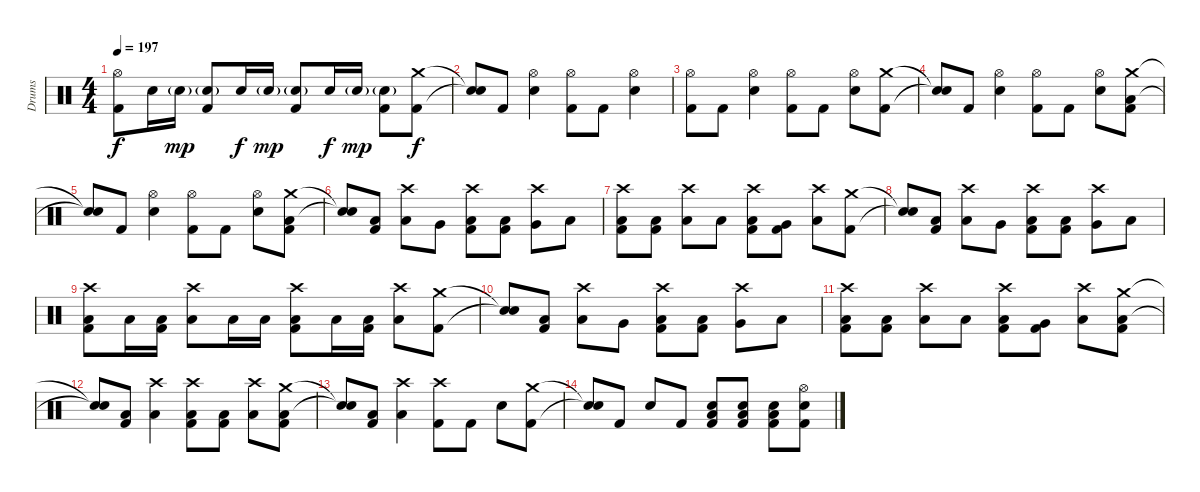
\track ("Drums" "Drums") {instrument percussion}
\staff {score}
\articulation defaults
\ts (4 4)
\tempo 197
\clef neutral
\ks c
("Hi-Hat (open)" "Kick (hit) 2").8{dy f} "Electric Snare (hit)".16 "Electric Snare (hit)"{g}.16{dy mp} ("Electric Snare (hit)"{g} "Kick (hit) 2").8 "Electric Snare (hit)".16{dy f} "Electric Snare (hit)"{g}.16{dy mp} ("Electric Snare (hit)"{g} "Kick (hit) 2").8 "Electric Snare (hit)".16{dy f} "Electric Snare (hit)"{g}.16{dy mp} ("Electric Snare (hit)"{g} "Kick (hit) 2").8 ("Crash medium (hit)" "Kick (hit) 2").8{dy f} |
("Snare (hit)"{t} "Snare (hit)"{t}).8 "Kick (hit) 2".8 ("Hi-Hat (open)" "Electric Snare (hit)").4 ("Hi-Hat (open)" "Kick (hit) 2").8 "Kick (hit) 2".8 ("Hi-Hat (open)" "Electric Snare (hit)").4 |
("Hi-Hat (open)" "Kick (hit) 2").8 "Kick (hit) 2".8 ("Hi-Hat (open)" "Electric Snare (hit)").4 ("Hi-Hat (open)" "Kick (hit) 2").8 "Kick (hit) 2".8 ("Hi-Hat (open)" "Electric Snare (hit)").8 ("Crash medium (hit)" "Kick (hit) 2").8 |
("Snare (hit)"{t} "Snare (hit)"{t}).8 "Kick (hit) 2".8 ("Hi-Hat (open)" "Electric Snare (hit)").4 ("Hi-Hat (open)" "Kick (hit) 2").8 "Kick (hit) 2".8 ("Hi-Hat (open)" "Electric Snare (hit)").8 ("Crash medium (hit)" "Low Tom (hit)" "Kick (hit) 2").8 |
\section ("" "")
("Snare (hit)"{t} "Snare (hit)"{t}).8 "Kick (hit) 2".8 ("Hi-Hat (open)" "Electric Snare (hit)").4 ("Hi-Hat (open)" "Kick (hit) 2").8 "Kick (hit) 2".8 ("Hi-Hat (open)" "Electric Snare (hit)").8 ("Crash medium (hit)" "Low Tom (hit)" "Kick (hit) 2").8 |
("Snare (hit)"{t} "Snare (hit)"{t}).8 ("Low Floor Tom (hit)" "Kick (hit) 2").8 ("Crash high (hit)" "Low Tom (hit)").8 "Very Low Tom (hit)".8 ("Crash high (hit)" "Low Floor Tom (hit)" "Kick (hit) 2").8 ("Low Tom (hit)" "Kick (hit) 2").8 ("Crash high (hit)" "Very Low Tom (hit)").8 "Low Floor Tom (hit)".8 |
("Crash high (hit)" "Low Tom (hit)" "Kick (hit) 2").8 ("Low Floor Tom (hit)" "Kick (hit) 2").8 ("Crash high (hit)" "Low Tom (hit)").8 "Low Floor Tom (hit)".8 ("Crash high (hit)" "Low Tom (hit)" "Kick (hit) 2").8 ("Very Low Tom (hit)" "Kick (hit) 2").8 ("Crash high (hit)" "Low Floor Tom (hit)").8 ("Crash medium (hit)" "Kick (hit) 2").8 |
("Snare (hit)"{t} "Snare (hit)"{t}).8 ("Low Floor Tom (hit)" "Kick (hit) 2").8 ("Crash high (hit)" "Low Tom (hit)").8 "Very Low Tom (hit)".8 ("Crash high (hit)" "Low Floor Tom (hit)" "Kick (hit) 2").8 ("Low Tom (hit)" "Kick (hit) 2").8 ("Crash high (hit)" "Very Low Tom (hit)").8 "Low Floor Tom (hit)".8 |
("Crash high (hit)" "Low Floor Tom (hit)" "Kick (hit) 2").8 "Low Tom (hit)".16 ("Low Tom (hit)" "Kick (hit) 2").16 ("Crash high (hit)" "Low Floor Tom (hit)").8 "Low Tom (hit)".16 "Low Tom (hit)".16 ("Crash high (hit)" "Low Floor Tom (hit)" "Kick (hit) 2").8 "Low Tom (hit)".16 ("Low Tom (hit)" "Kick (hit) 2").16 ("Crash high (hit)" "Low Floor Tom (hit)").8 ("Crash medium (hit)" "Kick (hit) 2").8 |
("Snare (hit)"{t} "Snare (hit)"{t}).8 ("Low Floor Tom (hit)" "Kick (hit) 2").8 ("Crash high (hit)" "Low Tom (hit)").8 "Very Low Tom (hit)".8 ("Crash high (hit)" "Low Floor Tom (hit)" "Kick (hit) 2").8 ("Low Tom (hit)" "Kick (hit) 2").8 ("Crash high (hit)" "Very Low Tom (hit)").8 "Low Floor Tom (hit)".8 |
("Crash high (hit)" "Low Tom (hit)" "Kick (hit) 2").8 ("Low Floor Tom (hit)" "Kick (hit) 2").8 ("Crash high (hit)" "Low Tom (hit)").8 "Low Floor Tom (hit)".8 ("Crash high (hit)" "Low Tom (hit)" "Kick (hit) 2").8 ("Very Low Tom (hit)" "Kick (hit) 2").8 ("Crash high (hit)" "Low Floor Tom (hit)").8 ("Crash medium (hit)" "Low Floor Tom (hit)" "Kick (hit) 2").8 |
("Snare (hit)"{t} "Snare (hit)"{t}).8 ("Low Floor Tom (hit)" "Kick (hit) 2").8 ("Crash high (hit)" "Low Floor Tom (hit)").4 ("Crash high (hit)" "Low Floor Tom (hit)" "Kick (hit) 2").8 ("Low Floor Tom (hit)" "Kick (hit) 2").8 ("Crash high (hit)" "Low Floor Tom (hit)").8 ("Crash medium (hit)" "Low Floor Tom (hit)" "Kick (hit) 2").8 |
("Snare (hit)"{t} "Snare (hit)"{t}).8 ("Low Floor Tom (hit)" "Kick (hit) 2").8 ("Crash high (hit)" "Low Floor Tom (hit)").4 ("Crash high (hit)" "Kick (hit) 2").8 "Kick (hit) 2".8 "Electric Snare (hit)".8 ("Crash medium (hit)" "Kick (hit) 2").8 |
("Snare (hit)"{t} "Snare (hit)"{t}).8 "Kick (hit) 2".8 "Electric Snare (hit)".8 "Kick (hit) 2".8 ("Electric Snare (hit)" "Low Floor Tom (hit)" "Kick (hit) 2").8 ("Electric Snare (hit)" "Low Floor Tom (hit)" "Kick (hit) 2").8 ("Electric Snare (hit)" "Low Floor Tom (hit)" "Kick (hit) 2").8 ("Hi-Hat (open)" "Electric Snare (hit)" "Kick (hit) 2").8
